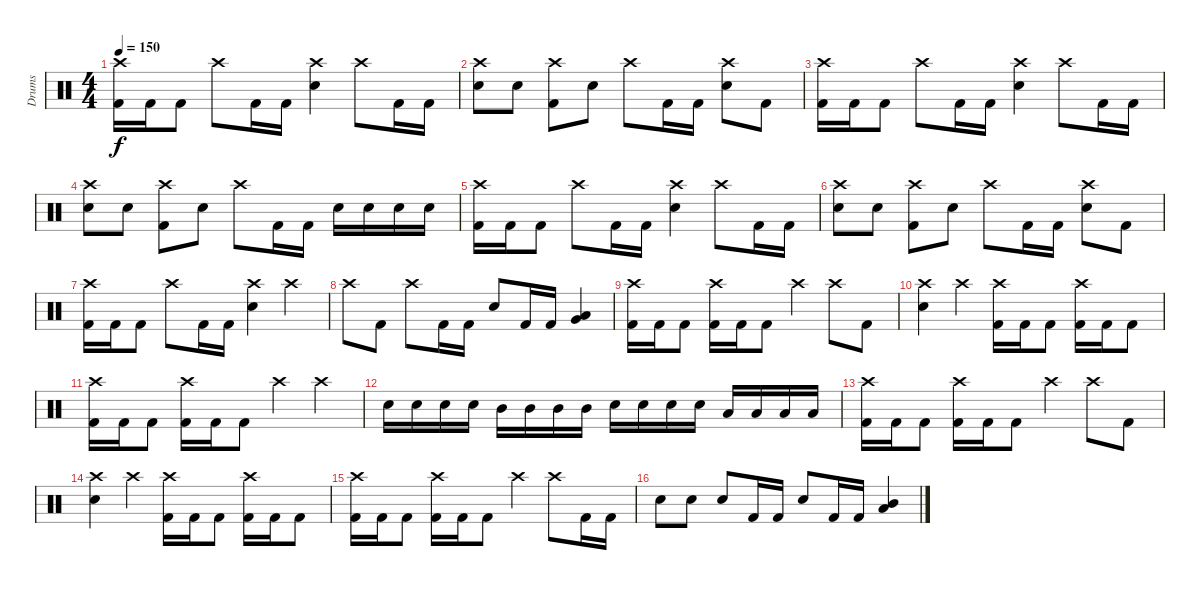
\track ("Drums" "Drums") {instrument percussion}
\staff {score}
\articulation defaults
\ts (4 4)
\tempo 150
\clef neutral
\ks c
("Crash high (hit)" "Kick (hit) 2").16{dy f} "Kick (hit) 2".16 "Kick (hit) 2".8 "Crash high (hit)".8 "Kick (hit) 2".16 "Kick (hit) 2".16 ("Crash high (hit)" "Electric Snare (hit)").4 "Crash high (hit)".8 "Kick (hit) 2".16 "Kick (hit) 2".16 |
("Crash high (hit)" "Electric Snare (hit)").8 "Electric Snare (hit)".8 ("Crash high (hit)" "Kick (hit) 2").8 "Electric Snare (hit)".8 "Crash high (hit)".8 "Kick (hit) 2".16 "Kick (hit) 2".16 ("Crash high (hit)" "Electric Snare (hit)").8 "Kick (hit) 2".8 |
("Crash high (hit)" "Kick (hit) 2").16 "Kick (hit) 2".16 "Kick (hit) 2".8 "Crash high (hit)".8 "Kick (hit) 2".16 "Kick (hit) 2".16 ("Crash high (hit)" "Electric Snare (hit)").4 "Crash high (hit)".8 "Kick (hit) 2".16 "Kick (hit) 2".16 |
("Crash high (hit)" "Electric Snare (hit)").8 "Electric Snare (hit)".8 ("Crash high (hit)" "Kick (hit) 2").8 "Electric Snare (hit)".8 "Crash high (hit)".8 "Kick (hit) 2".16 "Kick (hit) 2".16 "Electric Snare (hit)".16 "Electric Snare (hit)".16 "Electric Snare (hit)".16 "Electric Snare (hit)".16 |
("Crash high (hit)" "Kick (hit) 2").16 "Kick (hit) 2".16 "Kick (hit) 2".8 "Crash high (hit)".8 "Kick (hit) 2".16 "Kick (hit) 2".16 ("Crash high (hit)" "Electric Snare (hit)").4 "Crash high (hit)".8 "Kick (hit) 2".16 "Kick (hit) 2".16 |
("Crash high (hit)" "Electric Snare (hit)").8 "Electric Snare (hit)".8 ("Crash high (hit)" "Kick (hit) 2").8 "Electric Snare (hit)".8 "Crash high (hit)".8 "Kick (hit) 2".16 "Kick (hit) 2".16 ("Crash high (hit)" "Electric Snare (hit)").8 "Kick (hit) 2".8 |
("Crash high (hit)" "Kick (hit) 2").16 "Kick (hit) 2".16 "Kick (hit) 2".8 "Crash high (hit)".8 "Kick (hit) 2".16 "Kick (hit) 2".16 ("Crash high (hit)" "Electric Snare (hit)").4 "Crash high (hit)".4 |
"Crash high (hit)".8 "Kick (hit) 2".8 "Crash high (hit)".8 "Kick (hit) 2".16 "Kick (hit) 2".16 "Electric Snare (hit)".8 "Kick (hit) 2".16 "Kick (hit) 2".16 ("Very Low Tom (hit)" "Low Tom (hit)").4 |
("Crash high (hit)" "Kick (hit) 2").16 "Kick (hit) 2".16 "Kick (hit) 2".8 ("Crash high (hit)" "Kick (hit) 2").16 "Kick (hit) 2".16 "Kick (hit) 2".8 "Crash high (hit)".4 "Crash high (hit)".8 "Kick (hit) 2".8 |
("Crash high (hit)" "Electric Snare (hit)").4 "Crash high (hit)".4 ("Crash high (hit)" "Kick (hit) 2").16 "Kick (hit) 2".16 "Kick (hit) 2".8 ("Crash high (hit)" "Kick (hit) 2").16 "Kick (hit) 2".16 "Kick (hit) 2".8 |
("Crash high (hit)" "Kick (hit) 2").16 "Kick (hit) 2".16 "Kick (hit) 2".8 ("Crash high (hit)" "Kick (hit) 2").16 "Kick (hit) 2".16 "Kick (hit) 2".8 "Crash high (hit)".4 "Crash high (hit)".4 |
"Electric Snare (hit)".16 "Electric Snare (hit)".16 "Electric Snare (hit)".16 "Electric Snare (hit)".16 "Mid Tom (hit)".16 "Mid Tom (hit)".16 "Mid Tom (hit)".16 "Mid Tom (hit)".16 "Electric Snare (hit)".16 "Electric Snare (hit)".16 "Electric Snare (hit)".16 "Electric Snare (hit)".16 "Low Tom (hit)".16 "Low Tom (hit)".16 "Low Tom (hit)".16 "Low Tom (hit)".16 |
("Crash high (hit)" "Kick (hit) 2").16 "Kick (hit) 2".16 "Kick (hit) 2".8 ("Crash high (hit)" "Kick (hit) 2").16 "Kick (hit) 2".16 "Kick (hit) 2".8 "Crash high (hit)".4 "Crash high (hit)".8 "Kick (hit) 2".8 |
("Crash high (hit)" "Electric Snare (hit)").4 "Crash high (hit)".4 ("Crash high (hit)" "Kick (hit) 2").16 "Kick (hit) 2".16 "Kick (hit) 2".8 ("Crash high (hit)" "Kick (hit) 2").16 "Kick (hit) 2".16 "Kick (hit) 2".8 |
("Crash high (hit)" "Kick (hit) 2").16 "Kick (hit) 2".16 "Kick (hit) 2".8 ("Crash high (hit)" "Kick (hit) 2").16 "Kick (hit) 2".16 "Kick (hit) 2".8 "Crash high (hit)".4 "Crash high (hit)".8 "Kick (hit) 2".16 "Kick (hit) 2".16 |
"Electric Snare (hit)".8 "Electric Snare (hit)".8 "Electric Snare (hit)".8 "Kick (hit) 2".16 "Kick (hit) 2".16 "Electric Snare (hit)".8 "Kick (hit) 2".16 "Kick (hit) 2".16 ("Low Tom (hit)" "Mid Tom (hit)").4
